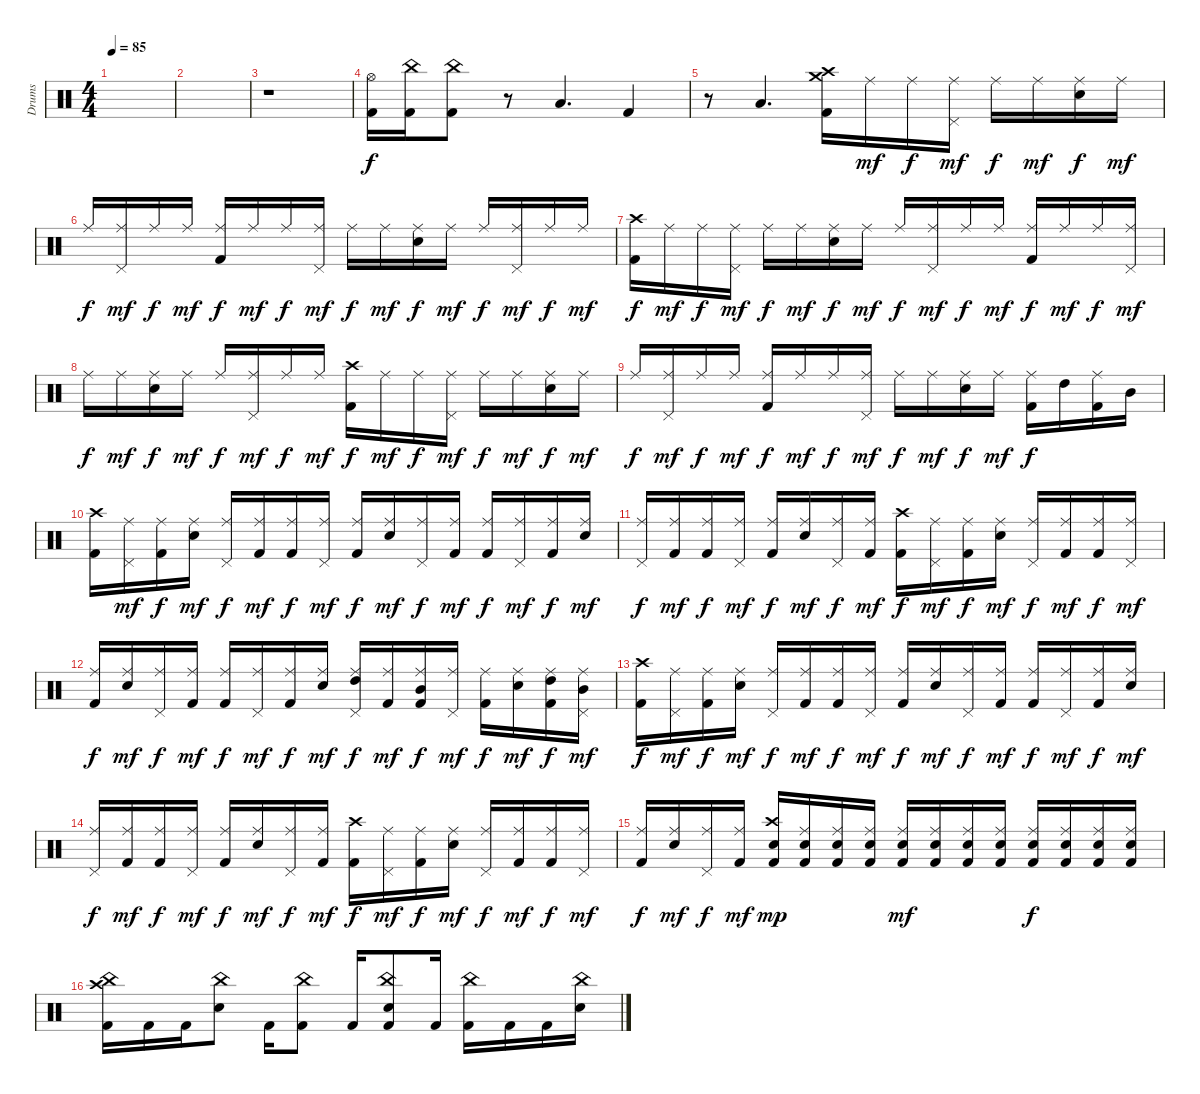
\track ("Drums" "Drums") {instrument percussion}
\staff {score}
\articulation defaults
\ts (4 4)
\tempo 85
\clef neutral
\ks c
|
|
r.1 |
("Hi-Hat (open)" "Kick (hit) 2").16 ("China (hit)" "Kick (hit) 2").16 ("China (hit)" "Kick (hit) 2").8 r.8 "Low Tom (hit)".4{d} "Kick (hit) 2".4 |
r.8 "Low Tom (hit)".4{d} ("Crash high (hit)" "Crash medium (hit)" "Kick (hit) 2").16 "Ride (middle)".16{dy mf} "Ride (middle)".16{dy f} ("Ride (middle)" "Pedal Hi-Hat (hit)").16{dy mf} "Ride (middle)".16{dy f} "Ride (middle)".16{dy mf} ("Ride (middle)" "Snare (hit) 2").16{dy f} "Ride (middle)".16{dy mf} |
"Ride (middle)".16{dy f} ("Ride (middle)" "Pedal Hi-Hat (hit)").16{dy mf} "Ride (middle)".16{dy f} "Ride (middle)".16{dy mf} ("Ride (middle)" "Kick (hit) 2").16{dy f} "Ride (middle)".16{dy mf} "Ride (middle)".16{dy f} ("Ride (middle)" "Pedal Hi-Hat (hit)").16{dy mf} "Ride (middle)".16{dy f} "Ride (middle)".16{dy mf} ("Ride (middle)" "Snare (hit) 2").16{dy f} "Ride (middle)".16{dy mf} "Ride (middle)".16{dy f} ("Ride (middle)" "Pedal Hi-Hat (hit)").16{dy mf} "Ride (middle)".16{dy f} "Ride (middle)".16{dy mf} |
("Crash high (hit)" "Kick (hit) 2").16{dy f} "Ride (middle)".16{dy mf} "Ride (middle)".16{dy f} ("Ride (middle)" "Pedal Hi-Hat (hit)").16{dy mf} "Ride (middle)".16{dy f} "Ride (middle)".16{dy mf} ("Ride (middle)" "Snare (hit) 2").16{dy f} "Ride (middle)".16{dy mf} "Ride (middle)".16{dy f} ("Ride (middle)" "Pedal Hi-Hat (hit)").16{dy mf} "Ride (middle)".16{dy f} "Ride (middle)".16{dy mf} ("Ride (middle)" "Kick (hit) 2").16{dy f} "Ride (middle)".16{dy mf} "Ride (middle)".16{dy f} ("Ride (middle)" "Pedal Hi-Hat (hit)").16{dy mf} |
"Ride (middle)".16{dy f} "Ride (middle)".16{dy mf} ("Ride (middle)" "Snare (hit) 2").16{dy f} "Ride (middle)".16{dy mf} "Ride (middle)".16{dy f} ("Ride (middle)" "Pedal Hi-Hat (hit)").16{dy mf} "Ride (middle)".16{dy f} "Ride (middle)".16{dy mf} ("Crash high (hit)" "Kick (hit) 2").16{dy f} "Ride (middle)".16{dy mf} "Ride (middle)".16{dy f} ("Ride (middle)" "Pedal Hi-Hat (hit)").16{dy mf} "Ride (middle)".16{dy f} "Ride (middle)".16{dy mf} ("Ride (middle)" "Snare (hit) 2").16{dy f} "Ride (middle)".16{dy mf} |
"Ride (middle)".16{dy f} ("Ride (middle)" "Pedal Hi-Hat (hit)").16{dy mf} "Ride (middle)".16{dy f} "Ride (middle)".16{dy mf} ("Ride (middle)" "Kick (hit) 2").16{dy f} "Ride (middle)".16{dy mf} "Ride (middle)".16{dy f} ("Ride (middle)" "Pedal Hi-Hat (hit)").16{dy mf} "Ride (middle)".16{dy f} "Ride (middle)".16{dy mf} ("Ride (middle)" "Snare (hit) 2").16{dy f} "Ride (middle)".16{dy mf} ("Ride (middle)" "Kick (hit) 2").16{dy f} "High Tom (hit)".16 ("Ride (middle)" "Kick (hit) 2").16 "Mid Tom (hit)".16 |
("Crash high (hit)" "Kick (hit) 2").16 ("Ride (middle)" "Pedal Hi-Hat (hit)").16{dy mf} ("Ride (middle)" "Kick (hit) 2").16{dy f} ("Ride (middle)" "Snare (hit) 2").16{dy mf} ("Ride (middle)" "Pedal Hi-Hat (hit)").16{dy f} ("Ride (middle)" "Kick (hit) 2").16{dy mf} ("Ride (middle)" "Kick (hit) 2").16{dy f} ("Ride (middle)" "Pedal Hi-Hat (hit)").16{dy mf} ("Ride (middle)" "Kick (hit) 2").16{dy f} ("Ride (middle)" "Snare (hit) 2").16{dy mf} ("Ride (middle)" "Pedal Hi-Hat (hit)").16{dy f} ("Ride (middle)" "Kick (hit) 2").16{dy mf} ("Ride (middle)" "Kick (hit) 2").16{dy f} ("Ride (middle)" "Pedal Hi-Hat (hit)").16{dy mf} ("Ride (middle)" "Kick (hit) 2").16{dy f} ("Ride (middle)" "Snare (hit) 2").16{dy mf} |
("Ride (middle)" "Pedal Hi-Hat (hit)").16{dy f} ("Ride (middle)" "Kick (hit) 2").16{dy mf} ("Ride (middle)" "Kick (hit) 2").16{dy f} ("Ride (middle)" "Pedal Hi-Hat (hit)").16{dy mf} ("Ride (middle)" "Kick (hit) 2").16{dy f} ("Ride (middle)" "Snare (hit) 2").16{dy mf} ("Ride (middle)" "Pedal Hi-Hat (hit)").16{dy f} ("Ride (middle)" "Kick (hit) 2").16{dy mf} ("Crash high (hit)" "Kick (hit) 2").16{dy f} ("Ride (middle)" "Pedal Hi-Hat (hit)").16{dy mf} ("Ride (middle)" "Kick (hit) 2").16{dy f} ("Ride (middle)" "Snare (hit) 2").16{dy mf} ("Ride (middle)" "Pedal Hi-Hat (hit)").16{dy f} ("Ride (middle)" "Kick (hit) 2").16{dy mf} ("Ride (middle)" "Kick (hit) 2").16{dy f} ("Ride (middle)" "Pedal Hi-Hat (hit)").16{dy mf} |
("Ride (middle)" "Kick (hit) 2").16{dy f} ("Ride (middle)" "Snare (hit) 2").16{dy mf} ("Ride (middle)" "Pedal Hi-Hat (hit)").16{dy f} ("Ride (middle)" "Kick (hit) 2").16{dy mf} ("Ride (middle)" "Kick (hit) 2").16{dy f} ("Ride (middle)" "Pedal Hi-Hat (hit)").16{dy mf} ("Ride (middle)" "Kick (hit) 2").16{dy f} ("Ride (middle)" "Snare (hit) 2").16{dy mf} ("Ride (middle)" "High Tom (hit)" "Pedal Hi-Hat (hit)").16{dy f} ("Ride (middle)" "Kick (hit) 2").16{dy mf} ("Ride (middle)" "Mid Tom (hit)" "Kick (hit) 2").16{dy f} ("Ride (middle)" "Pedal Hi-Hat (hit)").16{dy mf} ("Ride (middle)" "Kick (hit) 2").16{dy f} ("Ride (middle)" "Snare (hit) 2").16{dy mf} ("Ride (middle)" "High Tom (hit)" "Kick (hit) 2").16{dy f} ("Ride (middle)" "Mid Tom (hit)" "Pedal Hi-Hat (hit)").16{dy mf} |
("Crash high (hit)" "Kick (hit) 2").16{dy f} ("Ride (middle)" "Pedal Hi-Hat (hit)").16{dy mf} ("Ride (middle)" "Kick (hit) 2").16{dy f} ("Ride (middle)" "Snare (hit) 2").16{dy mf} ("Ride (middle)" "Pedal Hi-Hat (hit)").16{dy f} ("Ride (middle)" "Kick (hit) 2").16{dy mf} ("Ride (middle)" "Kick (hit) 2").16{dy f} ("Ride (middle)" "Pedal Hi-Hat (hit)").16{dy mf} ("Ride (middle)" "Kick (hit) 2").16{dy f} ("Ride (middle)" "Snare (hit) 2").16{dy mf} ("Ride (middle)" "Pedal Hi-Hat (hit)").16{dy f} ("Ride (middle)" "Kick (hit) 2").16{dy mf} ("Ride (middle)" "Kick (hit) 2").16{dy f} ("Ride (middle)" "Pedal Hi-Hat (hit)").16{dy mf} ("Ride (middle)" "Kick (hit) 2").16{dy f} ("Ride (middle)" "Snare (hit) 2").16{dy mf} |
("Ride (middle)" "Pedal Hi-Hat (hit)").16{dy f} ("Ride (middle)" "Kick (hit) 2").16{dy mf} ("Ride (middle)" "Kick (hit) 2").16{dy f} ("Ride (middle)" "Pedal Hi-Hat (hit)").16{dy mf} ("Ride (middle)" "Kick (hit) 2").16{dy f} ("Ride (middle)" "Snare (hit) 2").16{dy mf} ("Ride (middle)" "Pedal Hi-Hat (hit)").16{dy f} ("Ride (middle)" "Kick (hit) 2").16{dy mf} ("Crash high (hit)" "Kick (hit) 2").16{dy f} ("Ride (middle)" "Pedal Hi-Hat (hit)").16{dy mf} ("Ride (middle)" "Kick (hit) 2").16{dy f} ("Ride (middle)" "Snare (hit) 2").16{dy mf} ("Ride (middle)" "Pedal Hi-Hat (hit)").16{dy f} ("Ride (middle)" "Kick (hit) 2").16{dy mf} ("Ride (middle)" "Kick (hit) 2").16{dy f} ("Ride (middle)" "Pedal Hi-Hat (hit)").16{dy mf} |
("Ride (middle)" "Kick (hit) 2").16{dy f} ("Ride (middle)" "Snare (hit) 2").16{dy mf} ("Ride (middle)" "Pedal Hi-Hat (hit)").16{dy f} ("Ride (middle)" "Kick (hit) 2").16{dy mf} ("Crash high (hit)" "Snare (hit) 2" "Kick (hit) 2").16{dy mp} ("Ride (middle)" "Snare (hit) 2" "Kick (hit) 2").16 ("Ride (middle)" "Snare (hit) 2" "Kick (hit) 2").16 ("Ride (middle)" "Snare (hit) 2" "Kick (hit) 2").16 ("Ride (middle)" "Snare (hit) 2" "Kick (hit) 2").16{dy mf} ("Ride (middle)" "Snare (hit) 2" "Kick (hit) 2").16 ("Ride (middle)" "Snare (hit) 2" "Kick (hit) 2").16 ("Ride (middle)" "Snare (hit) 2" "Kick (hit) 2").16 ("Ride (middle)" "Snare (hit) 2" "Kick (hit) 2").16{dy f} ("Ride (middle)" "Snare (hit) 2" "Kick (hit) 2").16 ("Ride (middle)" "Snare (hit) 2" "Kick (hit) 2").16 ("Ride (middle)" "Snare (hit) 2" "Kick (hit) 2").16 |
("China (hit)" "Crash high (hit)" "Kick (hit) 2").16 "Kick (hit) 2".16 "Kick (hit) 2".16 ("China (hit)" "Snare (hit) 2").8 "Kick (hit) 2".16 ("China (hit)" "Kick (hit) 2").8 "Kick (hit) 2".16 ("China (hit)" "Snare (hit) 2" "Kick (hit) 2").8 "Kick (hit) 2".16 ("China (hit)" "Kick (hit) 2").16 "Kick (hit) 2".16 "Kick (hit) 2".16 ("China (hit)" "Snare (hit) 2").16
